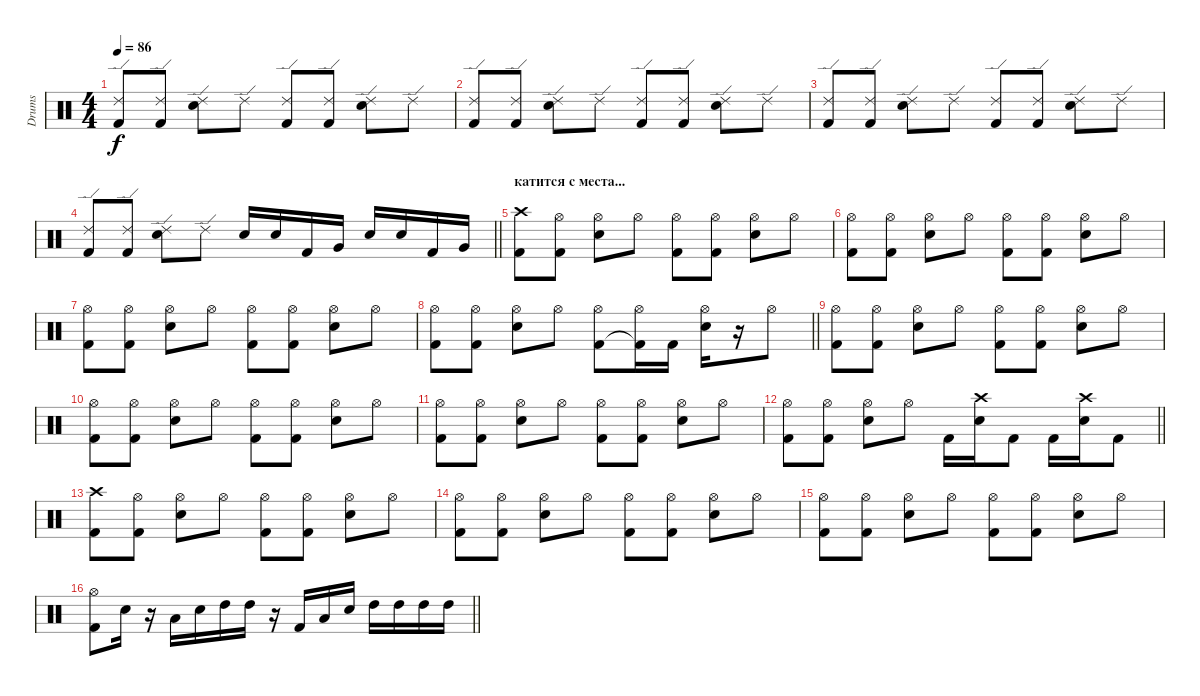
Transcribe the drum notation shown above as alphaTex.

\track ("Drums" "Drums") {instrument percussion}
\staff {score}
\articulation defaults
\ts (4 4)
\tempo 86
\clef neutral
\ks aminor
("Ride (edge) 2" "Kick (hit) 2").8{dy f} ("Ride (edge) 2" "Kick (hit) 2").8 ("Ride (edge) 2" "Snare (hit) 2").8 "Ride (edge) 2".8 ("Ride (edge) 2" "Kick (hit) 2").8 ("Ride (edge) 2" "Kick (hit) 2").8 ("Ride (edge) 2" "Snare (hit) 2").8 "Ride (edge) 2".8 |
("Ride (edge) 2" "Kick (hit) 2").8 ("Ride (edge) 2" "Kick (hit) 2").8 ("Ride (edge) 2" "Snare (hit) 2").8 "Ride (edge) 2".8 ("Ride (edge) 2" "Kick (hit) 2").8 ("Ride (edge) 2" "Kick (hit) 2").8 ("Ride (edge) 2" "Snare (hit) 2").8 "Ride (edge) 2".8 |
("Ride (edge) 2" "Kick (hit) 2").8 ("Ride (edge) 2" "Kick (hit) 2").8 ("Ride (edge) 2" "Snare (hit) 2").8 "Ride (edge) 2".8 ("Ride (edge) 2" "Kick (hit) 2").8 ("Ride (edge) 2" "Kick (hit) 2").8 ("Ride (edge) 2" "Snare (hit) 2").8 "Ride (edge) 2".8 |
\barLineRight lightlight
("Ride (edge) 2" "Kick (hit) 2").8 ("Ride (edge) 2" "Kick (hit) 2").8 ("Ride (edge) 2" "Snare (hit) 2").8 "Ride (edge) 2".8 "Snare (hit) 2".16 "Snare (hit) 2".16 "Kick (hit) 2".16 "Very Low Tom (hit)".16 "Snare (hit) 2".16 "Snare (hit) 2".16 "Kick (hit) 2".16 "Very Low Tom (hit)".16 |
\section ("" "катится с места...")
("Crash high (hit)" "Kick (hit) 2").8 ("Hi-Hat (open)" "Kick (hit) 2").8 ("Hi-Hat (open)" "Snare (hit) 2").8 "Hi-Hat (open)".8 ("Hi-Hat (open)" "Kick (hit) 2").8 ("Hi-Hat (open)" "Kick (hit) 2").8 ("Hi-Hat (open)" "Snare (hit) 2").8 "Hi-Hat (open)".8 |
("Hi-Hat (open)" "Kick (hit) 2").8 ("Hi-Hat (open)" "Kick (hit) 2").8 ("Hi-Hat (open)" "Snare (hit) 2").8 "Hi-Hat (open)".8 ("Hi-Hat (open)" "Kick (hit) 2").8 ("Hi-Hat (open)" "Kick (hit) 2").8 ("Hi-Hat (open)" "Snare (hit) 2").8 "Hi-Hat (open)".8 |
("Hi-Hat (open)" "Kick (hit) 2").8 ("Hi-Hat (open)" "Kick (hit) 2").8 ("Hi-Hat (open)" "Snare (hit) 2").8 "Hi-Hat (open)".8 ("Hi-Hat (open)" "Kick (hit) 2").8 ("Hi-Hat (open)" "Kick (hit) 2").8 ("Hi-Hat (open)" "Snare (hit) 2").8 "Hi-Hat (open)".8 |
\barLineRight lightlight
("Hi-Hat (open)" "Kick (hit) 2").8 ("Hi-Hat (open)" "Kick (hit) 2").8 ("Hi-Hat (open)" "Snare (hit) 2").8 "Hi-Hat (open)".8 ("Hi-Hat (open)" "Kick (hit) 2").8 ("Hi-Hat (open)" "Kick (hit) 2"{t}).16 "Kick (hit) 2".16 ("Hi-Hat (open)" "Snare (hit) 2").16 r.16 "Hi-Hat (open)".8 |
("Hi-Hat (open)" "Kick (hit) 2").8 ("Hi-Hat (open)" "Kick (hit) 2").8 ("Hi-Hat (open)" "Snare (hit) 2").8 "Hi-Hat (open)".8 ("Hi-Hat (open)" "Kick (hit) 2").8 ("Hi-Hat (open)" "Kick (hit) 2").8 ("Hi-Hat (open)" "Snare (hit) 2").8 "Hi-Hat (open)".8 |
("Hi-Hat (open)" "Kick (hit) 2").8 ("Hi-Hat (open)" "Kick (hit) 2").8 ("Hi-Hat (open)" "Snare (hit) 2").8 "Hi-Hat (open)".8 ("Hi-Hat (open)" "Kick (hit) 2").8 ("Hi-Hat (open)" "Kick (hit) 2").8 ("Hi-Hat (open)" "Snare (hit) 2").8 "Hi-Hat (open)".8 |
("Hi-Hat (open)" "Kick (hit) 2").8 ("Hi-Hat (open)" "Kick (hit) 2").8 ("Hi-Hat (open)" "Snare (hit) 2").8 "Hi-Hat (open)".8 ("Hi-Hat (open)" "Kick (hit) 2").8 ("Hi-Hat (open)" "Kick (hit) 2").8 ("Hi-Hat (open)" "Snare (hit) 2").8 "Hi-Hat (open)".8 |
\barLineRight lightlight
("Hi-Hat (open)" "Kick (hit) 2").8 ("Hi-Hat (open)" "Kick (hit) 2").8 ("Hi-Hat (open)" "Snare (hit) 2").8 "Hi-Hat (open)".8 "Kick (hit) 2".16 ("Crash high (hit)" "Snare (hit) 2").16 "Kick (hit) 2".8 "Kick (hit) 2".16 ("Crash high (hit)" "Snare (hit) 2").16 "Kick (hit) 2".8 |
("Crash high (hit)" "Kick (hit) 2").8 ("Hi-Hat (open)" "Kick (hit) 2").8 ("Hi-Hat (open)" "Snare (hit) 2").8 "Hi-Hat (open)".8 ("Hi-Hat (open)" "Kick (hit) 2").8 ("Hi-Hat (open)" "Kick (hit) 2").8 ("Hi-Hat (open)" "Snare (hit) 2").8 "Hi-Hat (open)".8 |
("Hi-Hat (open)" "Kick (hit) 2").8 ("Hi-Hat (open)" "Kick (hit) 2").8 ("Hi-Hat (open)" "Snare (hit) 2").8 "Hi-Hat (open)".8 ("Hi-Hat (open)" "Kick (hit) 2").8 ("Hi-Hat (open)" "Kick (hit) 2").8 ("Hi-Hat (open)" "Snare (hit) 2").8 "Hi-Hat (open)".8 |
("Hi-Hat (open)" "Kick (hit) 2").8 ("Hi-Hat (open)" "Kick (hit) 2").8 ("Hi-Hat (open)" "Snare (hit) 2").8 "Hi-Hat (open)".8 ("Hi-Hat (open)" "Kick (hit) 2").8 ("Hi-Hat (open)" "Kick (hit) 2").8 ("Hi-Hat (open)" "Snare (hit) 2").8 "Hi-Hat (open)".8 |
\barLineRight lightlight
("Hi-Hat (open)" "Kick (hit) 2").8 "Snare (hit) 2".16 r.16 "Low Tom (hit)".16 "Snare (hit) 2".16 "High Tom (hit)".16 "High Tom (hit)".16 r.16 "Kick (hit) 2".16 "Low Tom (hit)".16 "Snare (hit) 2".16 "High Tom (hit)".16 "High Tom (hit)".16 "High Tom (hit)".16 "High Tom (hit)".16
